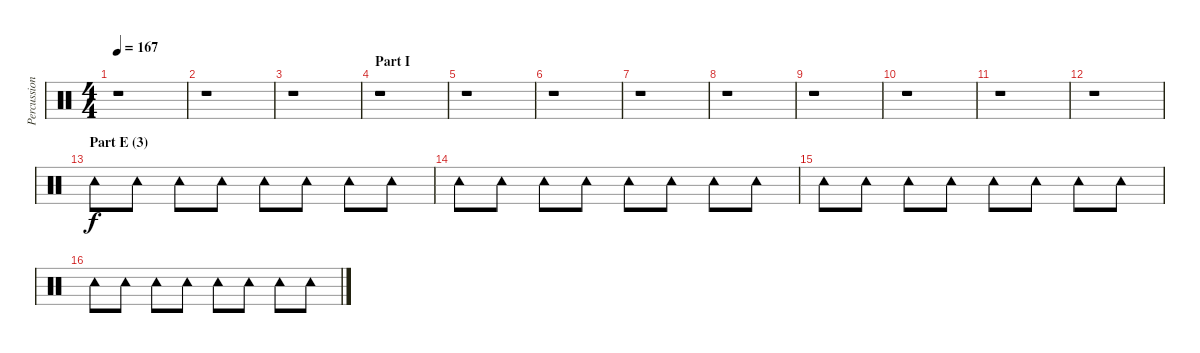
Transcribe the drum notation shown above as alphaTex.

\track ("Percussion" "Percussion") {instrument percussion}
\staff {score}
\articulation defaults
\ts (4 4)
\tempo 167
\clef neutral
\ks c
r.1{dy f} |
r.1 |
r.1 |
\section ("" "Part I")
r.1 |
r.1 |
r.1 |
r.1 |
r.1 |
r.1 |
r.1 |
r.1 |
r.1 |
\section ("" "Part E (3)")
"Tambourine (hit)".8 "Tambourine (hit)".8 "Tambourine (hit)".8 "Tambourine (hit)".8 "Tambourine (hit)".8 "Tambourine (hit)".8 "Tambourine (hit)".8 "Tambourine (hit)".8 |
"Tambourine (hit)".8 "Tambourine (hit)".8 "Tambourine (hit)".8 "Tambourine (hit)".8 "Tambourine (hit)".8 "Tambourine (hit)".8 "Tambourine (hit)".8 "Tambourine (hit)".8 |
"Tambourine (hit)".8 "Tambourine (hit)".8 "Tambourine (hit)".8 "Tambourine (hit)".8 "Tambourine (hit)".8 "Tambourine (hit)".8 "Tambourine (hit)".8 "Tambourine (hit)".8 |
"Tambourine (hit)".8 "Tambourine (hit)".8 "Tambourine (hit)".8 "Tambourine (hit)".8 "Tambourine (hit)".8 "Tambourine (hit)".8 "Tambourine (hit)".8 "Tambourine (hit)".8
